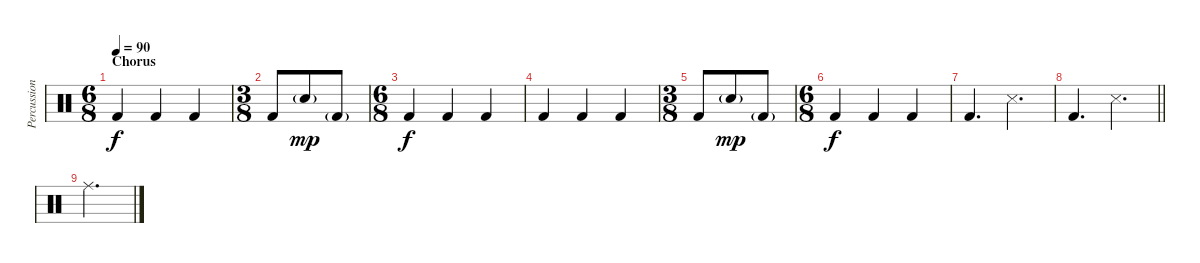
\track ("Percussion" "Percussion") {instrument percussion}
\staff {score}
\articulation defaults
\ts (6 8)
\section ("" "Chorus")
\tempo 90
\clef neutral
\ks c "Kick (hit) 2".4{dy f} "Kick (hit) 2".4 "Kick (hit) 2".4
|
\ts (3 8)
"Kick (hit) 2".8 "Snare (hit) 2"{g}.8{dy mp} "Kick (hit) 2"{g}.8 |
\ts (6 8)
"Kick (hit) 2".4{dy f} "Kick (hit) 2".4 "Kick (hit) 2".4 |
"Kick (hit) 2".4 "Kick (hit) 2".4 "Kick (hit) 2".4 |
\ts (3 8)
"Kick (hit) 2".8 "Snare (hit) 2"{g}.8{dy mp} "Kick (hit) 2"{g}.8 |
\ts (6 8)
"Kick (hit) 2".4{dy f} "Kick (hit) 2".4 "Kick (hit) 2".4 |
"Kick (hit) 2".4{d} "Snare (side stick) 3".4{d} |
\barLineRight lightlight "Kick (hit) 2".4{d} "Snare (side stick) 3".4{d}
|
"Ride (middle)".2{d}
